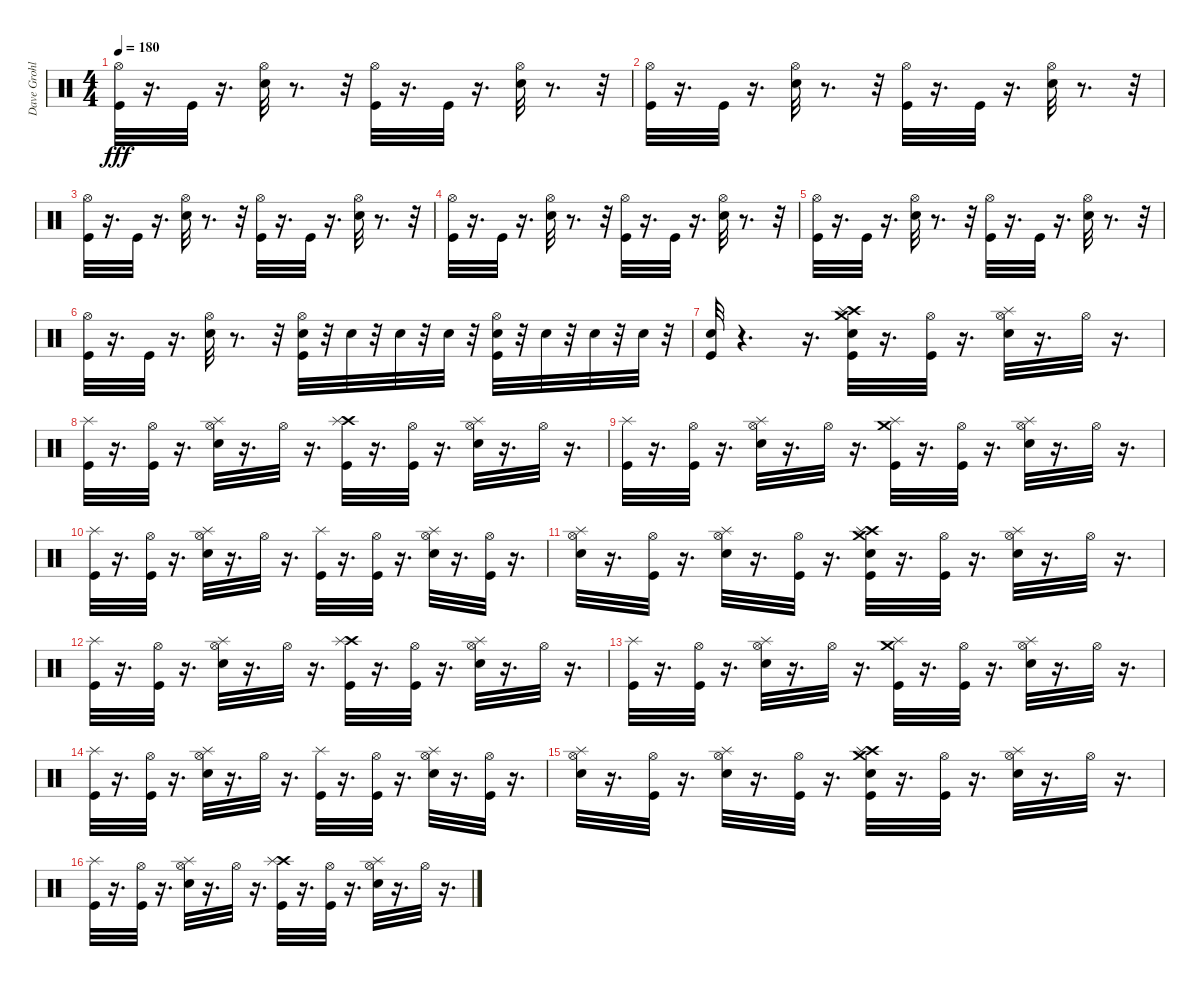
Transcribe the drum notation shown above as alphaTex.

\track ("Dave Grohl - Drums" "Dave Grohl") {instrument percussion}
\staff {score}
\articulation defaults
\ts (4 4)
\tempo 180
\clef neutral
\ks c
("Hi-Hat (open)" "Kick (hit)").32{dy fff} r.16{d} "Kick (hit)".32 r.16{d} ("Hi-Hat (open)" "Snare (hit) 2").32 r.8{d} r.32 ("Hi-Hat (open)" "Kick (hit)").32 r.16{d} "Kick (hit)".32 r.16{d} ("Hi-Hat (open)" "Snare (hit) 2").32 r.8{d} r.32 |
("Hi-Hat (open)" "Kick (hit)").32 r.16{d} "Kick (hit)".32 r.16{d} ("Hi-Hat (open)" "Snare (hit) 2").32 r.8{d} r.32 ("Hi-Hat (open)" "Kick (hit)").32 r.16{d} "Kick (hit)".32 r.16{d} ("Hi-Hat (open)" "Snare (hit) 2").32 r.8{d} r.32 |
("Hi-Hat (open)" "Kick (hit)").32 r.16{d} "Kick (hit)".32 r.16{d} ("Hi-Hat (open)" "Snare (hit) 2").32 r.8{d} r.32 ("Hi-Hat (open)" "Kick (hit)").32 r.16{d} "Kick (hit)".32 r.16{d} ("Hi-Hat (open)" "Snare (hit) 2").32 r.8{d} r.32 |
("Hi-Hat (open)" "Kick (hit)").32 r.16{d} "Kick (hit)".32 r.16{d} ("Hi-Hat (open)" "Snare (hit) 2").32 r.8{d} r.32 ("Hi-Hat (open)" "Kick (hit)").32 r.16{d} "Kick (hit)".32 r.16{d} ("Hi-Hat (open)" "Snare (hit) 2").32 r.8{d} r.32 |
("Hi-Hat (open)" "Kick (hit)").32 r.16{d} "Kick (hit)".32 r.16{d} ("Hi-Hat (open)" "Snare (hit) 2").32 r.8{d} r.32 ("Hi-Hat (open)" "Kick (hit)").32 r.16{d} "Kick (hit)".32 r.16{d} ("Hi-Hat (open)" "Snare (hit) 2").32 r.8{d} r.32 |
("Hi-Hat (open)" "Kick (hit)").32 r.16{d} "Kick (hit)".32 r.16{d} ("Hi-Hat (open)" "Snare (hit) 2").32 r.8{d} r.32 ("Snare (hit) 2" "Hi-Hat (open)" "Kick (hit)").32 r.32 "Snare (hit) 2".32 r.32 "Snare (hit) 2".32 r.32 "Snare (hit) 2".32 r.32 ("Kick (hit)" "Hi-Hat (open)" "Snare (hit) 2").32 r.32 "Snare (hit) 2".32 r.32 "Snare (hit) 2".32 r.32 "Snare (hit) 2".32 r.32 |
("Snare (hit) 2" "Kick (hit)").32 r.4{d} r.16{d} ("Crash high (hit)" "Crash medium (hit)" "Splash (hit)" "Snare (hit) 2" "Kick (hit)").32 r.16{d} ("Hi-Hat (open)" "Kick (hit)").32 r.16{d} ("Splash (hit)" "Hi-Hat (open)" "Snare (hit) 2").32 r.16{d} "Hi-Hat (open)".32 r.16{d} |
("Splash (hit)" "Kick (hit)").32 r.16{d} ("Hi-Hat (open)" "Kick (hit)").32 r.16{d} ("Splash (hit)" "Hi-Hat (open)" "Snare (hit) 2").32 r.16{d} "Hi-Hat (open)".32 r.16{d} ("Crash high (hit)" "Splash (hit)" "Kick (hit)").32 r.16{d} ("Hi-Hat (open)" "Kick (hit)").32 r.16{d} ("Splash (hit)" "Hi-Hat (open)" "Snare (hit) 2").32 r.16{d} "Hi-Hat (open)".32 r.16{d} |
("Splash (hit)" "Kick (hit)").32 r.16{d} ("Hi-Hat (open)" "Kick (hit)").32 r.16{d} ("Splash (hit)" "Hi-Hat (open)" "Snare (hit) 2").32 r.16{d} "Hi-Hat (open)".32 r.16{d} ("Crash medium (hit)" "Splash (hit)" "Kick (hit)").32 r.16{d} ("Hi-Hat (open)" "Kick (hit)").32 r.16{d} ("Splash (hit)" "Hi-Hat (open)" "Snare (hit) 2").32 r.16{d} "Hi-Hat (open)".32 r.16{d} |
("Splash (hit)" "Kick (hit)").32 r.16{d} ("Hi-Hat (open)" "Kick (hit)").32 r.16{d} ("Splash (hit)" "Hi-Hat (open)" "Snare (hit) 2").32 r.16{d} "Hi-Hat (open)".32 r.16{d} ("Splash (hit)" "Kick (hit)").32 r.16{d} ("Hi-Hat (open)" "Kick (hit)").32 r.16{d} ("Splash (hit)" "Hi-Hat (open)" "Snare (hit) 2").32 r.16{d} ("Hi-Hat (open)" "Kick (hit)").32 r.16{d} |
("Splash (hit)" "Hi-Hat (open)" "Snare (hit) 2").32 r.16{d} ("Hi-Hat (open)" "Kick (hit)").32 r.16{d} ("Splash (hit)" "Hi-Hat (open)" "Snare (hit) 2").32 r.16{d} ("Hi-Hat (open)" "Kick (hit)").32 r.16{d} ("Crash high (hit)" "Crash medium (hit)" "Splash (hit)" "Snare (hit) 2" "Kick (hit)").32 r.16{d} ("Hi-Hat (open)" "Kick (hit)").32 r.16{d} ("Splash (hit)" "Hi-Hat (open)" "Snare (hit) 2").32 r.16{d} "Hi-Hat (open)".32 r.16{d} |
("Splash (hit)" "Kick (hit)").32 r.16{d} ("Hi-Hat (open)" "Kick (hit)").32 r.16{d} ("Splash (hit)" "Hi-Hat (open)" "Snare (hit) 2").32 r.16{d} "Hi-Hat (open)".32 r.16{d} ("Crash high (hit)" "Splash (hit)" "Kick (hit)").32 r.16{d} ("Hi-Hat (open)" "Kick (hit)").32 r.16{d} ("Splash (hit)" "Hi-Hat (open)" "Snare (hit) 2").32 r.16{d} "Hi-Hat (open)".32 r.16{d} |
("Splash (hit)" "Kick (hit)").32 r.16{d} ("Hi-Hat (open)" "Kick (hit)").32 r.16{d} ("Splash (hit)" "Hi-Hat (open)" "Snare (hit) 2").32 r.16{d} "Hi-Hat (open)".32 r.16{d} ("Crash medium (hit)" "Splash (hit)" "Kick (hit)").32 r.16{d} ("Hi-Hat (open)" "Kick (hit)").32 r.16{d} ("Splash (hit)" "Hi-Hat (open)" "Snare (hit) 2").32 r.16{d} "Hi-Hat (open)".32 r.16{d} |
("Splash (hit)" "Kick (hit)").32 r.16{d} ("Hi-Hat (open)" "Kick (hit)").32 r.16{d} ("Splash (hit)" "Hi-Hat (open)" "Snare (hit) 2").32 r.16{d} "Hi-Hat (open)".32 r.16{d} ("Splash (hit)" "Kick (hit)").32 r.16{d} ("Hi-Hat (open)" "Kick (hit)").32 r.16{d} ("Splash (hit)" "Hi-Hat (open)" "Snare (hit) 2").32 r.16{d} ("Hi-Hat (open)" "Kick (hit)").32 r.16{d} |
("Splash (hit)" "Hi-Hat (open)" "Snare (hit) 2").32 r.16{d} ("Hi-Hat (open)" "Kick (hit)").32 r.16{d} ("Splash (hit)" "Hi-Hat (open)" "Snare (hit) 2").32 r.16{d} ("Hi-Hat (open)" "Kick (hit)").32 r.16{d} ("Crash high (hit)" "Crash medium (hit)" "Splash (hit)" "Snare (hit) 2" "Kick (hit)").32 r.16{d} ("Hi-Hat (open)" "Kick (hit)").32 r.16{d} ("Splash (hit)" "Hi-Hat (open)" "Snare (hit) 2").32 r.16{d} "Hi-Hat (open)".32 r.16{d} |
("Splash (hit)" "Kick (hit)").32 r.16{d} ("Hi-Hat (open)" "Kick (hit)").32 r.16{d} ("Splash (hit)" "Hi-Hat (open)" "Snare (hit) 2").32 r.16{d} "Hi-Hat (open)".32 r.16{d} ("Crash high (hit)" "Splash (hit)" "Kick (hit)").32 r.16{d} ("Hi-Hat (open)" "Kick (hit)").32 r.16{d} ("Splash (hit)" "Hi-Hat (open)" "Snare (hit) 2").32 r.16{d} "Hi-Hat (open)".32 r.16{d}
